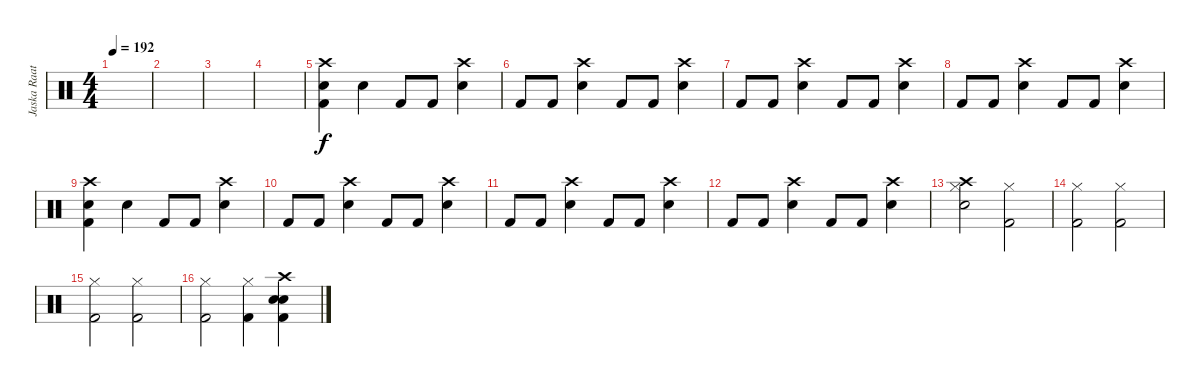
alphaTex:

\track ("Jaska Raatikainen" "Jaska Raat") {instrument percussion}
\staff {score}
\articulation defaults
\ts (4 4)
\tempo 192
\clef neutral
\ks c
|
|
|
|
("Crash high (hit)" "Snare (hit) 2" "Kick (hit) 2").4 "Snare (hit) 2".4 "Kick (hit) 2".8 "Kick (hit) 2".8 ("Crash high (hit)" "Snare (hit) 2").4 |
"Kick (hit) 2".8 "Kick (hit) 2".8 ("Crash high (hit)" "Snare (hit) 2").4 "Kick (hit) 2".8 "Kick (hit) 2".8 ("Crash high (hit)" "Snare (hit) 2").4 |
"Kick (hit) 2".8 "Kick (hit) 2".8 ("Crash high (hit)" "Snare (hit) 2").4 "Kick (hit) 2".8 "Kick (hit) 2".8 ("Crash high (hit)" "Snare (hit) 2").4 |
"Kick (hit) 2".8 "Kick (hit) 2".8 ("Crash high (hit)" "Snare (hit) 2").4 "Kick (hit) 2".8 "Kick (hit) 2".8 ("Crash high (hit)" "Snare (hit) 2").4 |
("Crash high (hit)" "Snare (hit) 2" "Kick (hit) 2").4 "Snare (hit) 2".4 "Kick (hit) 2".8 "Kick (hit) 2".8 ("Crash high (hit)" "Snare (hit) 2").4 |
"Kick (hit) 2".8 "Kick (hit) 2".8 ("Crash high (hit)" "Snare (hit) 2").4 "Kick (hit) 2".8 "Kick (hit) 2".8 ("Crash high (hit)" "Snare (hit) 2").4 |
"Kick (hit) 2".8 "Kick (hit) 2".8 ("Crash high (hit)" "Snare (hit) 2").4 "Kick (hit) 2".8 "Kick (hit) 2".8 ("Crash high (hit)" "Snare (hit) 2").4 |
"Kick (hit) 2".8 "Kick (hit) 2".8 ("Crash high (hit)" "Snare (hit) 2").4 "Kick (hit) 2".8 "Kick (hit) 2".8 ("Crash high (hit)" "Snare (hit) 2").4 |
("Crash high (hit)" "Hi-Hat (closed)" "Snare (hit) 2").2 ("Hi-Hat (closed)" "Kick (hit) 2").2 |
("Hi-Hat (closed)" "Kick (hit) 2").2 ("Hi-Hat (closed)" "Kick (hit) 2").2 |
("Hi-Hat (closed)" "Kick (hit) 2").2 ("Hi-Hat (closed)" "Kick (hit) 2").2 |
("Hi-Hat (closed)" "Kick (hit) 2").2 ("Hi-Hat (closed)" "Kick (hit) 2").4 ("Crash high (hit)" "Electric Snare (hit)" "Snare (hit) 2" "Kick (hit) 2").4
